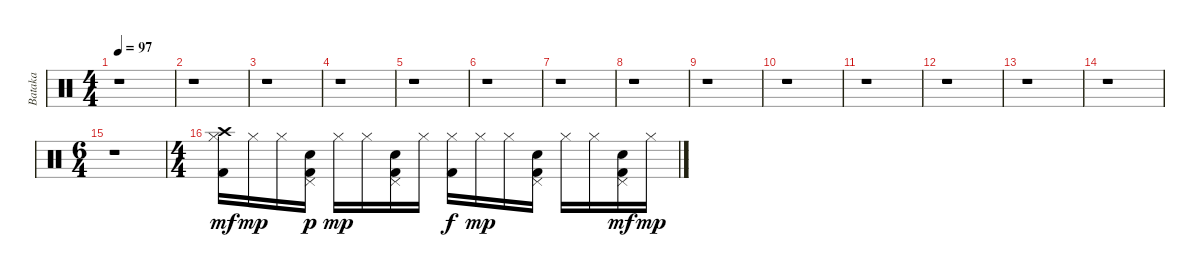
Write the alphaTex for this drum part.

\track ("Bataka" "Bataka") {instrument percussion}
\staff {score}
\articulation defaults
\ts (4 4)
\tempo 97
\clef neutral
\ks c
r.1{dy mf} |
r.1 |
r.1 |
r.1 |
r.1 |
r.1 |
r.1 |
r.1 |
r.1 |
r.1 |
r.1 |
r.1 |
r.1 |
r.1 |
\ts (6 4)
r.1 |
\ts (4 4)
("Crash high (hit)" "Kick (hit) 2" "Hi-Hat (closed)").16 "Hi-Hat (closed)".16{dy mp} "Hi-Hat (closed)".16 ("Pedal Hi-Hat (hit)" "Kick (hit) 2" "Electric Snare (hit)").16{dy p} "Hi-Hat (closed)".16{dy mp} "Hi-Hat (closed)".16 ("Kick (hit) 2" "Pedal Hi-Hat (hit)" "Electric Snare (hit)").16 "Hi-Hat (closed)".16 ("Kick (hit) 2" "Hi-Hat (closed)").16{dy f} "Hi-Hat (closed)".16{dy mp} "Hi-Hat (closed)".16 ("Electric Snare (hit)" "Pedal Hi-Hat (hit)" "Kick (hit) 2").16 "Hi-Hat (closed)".16 "Hi-Hat (closed)".16 ("Electric Snare (hit)" "Pedal Hi-Hat (hit)" "Kick (hit) 2").16{dy mf} "Hi-Hat (closed)".16{dy mp}
